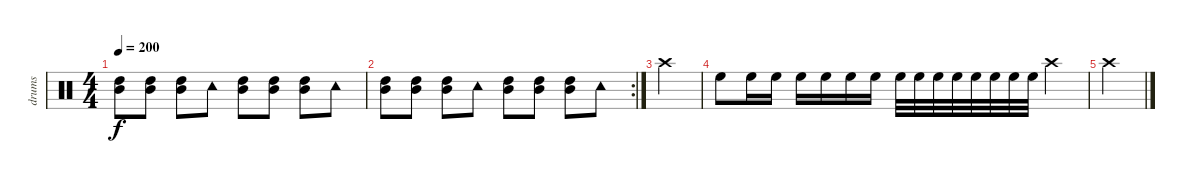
\track ("drums" "drums") {instrument percussion}
\staff {score}
\articulation defaults
\ts (4 4)
\tempo 200
\clef neutral
\ks c
("Mid Tom (hit)" "High Tom (hit)").8{dy f} ("Mid Tom (hit)" "High Tom (hit)").8 ("Mid Tom (hit)" "High Tom (hit)").8 "Tambourine (hit)".8 ("Mid Tom (hit)" "High Tom (hit)").8 ("Mid Tom (hit)" "High Tom (hit)").8 ("Mid Tom (hit)" "High Tom (hit)").8 "Tambourine (hit)".8 |
\rc 2
("Mid Tom (hit)" "High Tom (hit)").8 ("Mid Tom (hit)" "High Tom (hit)").8 ("Mid Tom (hit)" "High Tom (hit)").8 "Tambourine (hit)".8 ("Mid Tom (hit)" "High Tom (hit)").8 ("Mid Tom (hit)" "High Tom (hit)").8 ("Mid Tom (hit)" "High Tom (hit)").8 "Tambourine (hit)".8 |
"Crash high (hit)".4 |
"High Floor Tom (hit)".8 "High Floor Tom (hit)".16 "High Floor Tom (hit)".16 "High Floor Tom (hit)".16 "High Floor Tom (hit)".16 "High Floor Tom (hit)".16 "High Floor Tom (hit)".16 "High Floor Tom (hit)".32 "High Floor Tom (hit)".32 "High Floor Tom (hit)".32 "High Floor Tom (hit)".32 "High Floor Tom (hit)".32 "High Floor Tom (hit)".32 "High Floor Tom (hit)".32 "High Floor Tom (hit)".32 "Crash high (hit)".4 |
"Crash high (hit)".4
